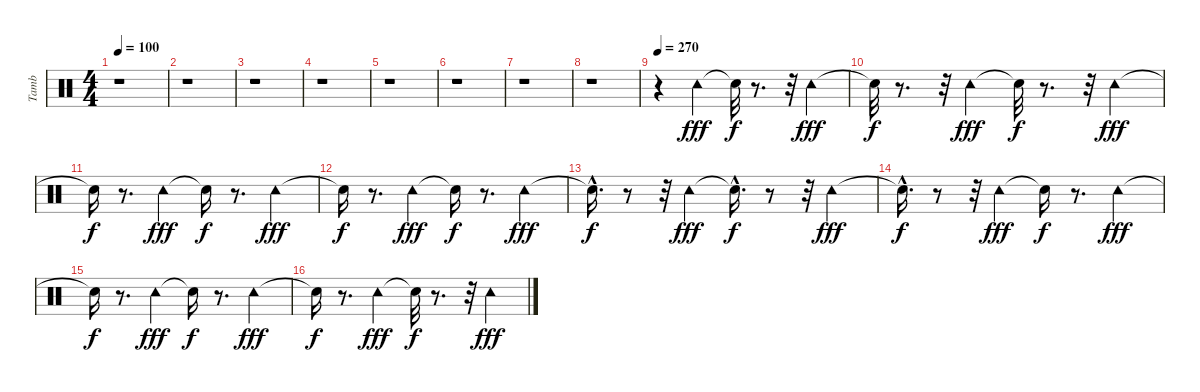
\track ("Tamb" "Tamb") {instrument percussion}
\staff {score}
\articulation defaults
\ts (4 4)
\tempo 100
\clef neutral
\ks c
r.1{dy fff} |
r.1 |
r.1 |
r.1 |
r.1 |
r.1 |
r.1 |
r.1 |
\tempo 270
r.4 "Tambourine (hit)".4 "Snare (hit)"{t}.32{dy f} r.8{d} r.32 "Tambourine (hit)".4{dy fff} |
"Snare (hit)"{t}.32{dy f} r.8{d} r.32 "Tambourine (hit)".4{dy fff} "Snare (hit)"{t}.32{dy f} r.8{d} r.32 "Tambourine (hit)".4{dy fff} |
"Snare (hit)"{t}.16{dy f} r.8{d} "Tambourine (hit)".4{dy fff} "Snare (hit)"{t}.16{dy f} r.8{d} "Tambourine (hit)".4{dy fff} |
"Snare (hit)"{t}.16{dy f} r.8{d} "Tambourine (hit)".4{dy fff} "Snare (hit)"{t}.16{dy f} r.8{d} "Tambourine (hit)".4{dy fff} |
"Snare (hit)"{hac t}.16{d dy f} r.8 r.32 "Tambourine (hit)".4{dy fff} "Snare (hit)"{hac t}.16{d dy f} r.8 r.32 "Tambourine (hit)".4{dy fff} |
"Snare (hit)"{hac t}.16{d dy f} r.8 r.32 "Tambourine (hit)".4{dy fff} "Snare (hit)"{t}.16{dy f} r.8{d} "Tambourine (hit)".4{dy fff} |
"Snare (hit)"{t}.16{dy f} r.8{d} "Tambourine (hit)".4{dy fff} "Snare (hit)"{t}.16{dy f} r.8{d} "Tambourine (hit)".4{dy fff} |
"Snare (hit)"{t}.16{dy f} r.8{d} "Tambourine (hit)".4{dy fff} "Snare (hit)"{t}.32{dy f} r.8{d} r.32 "Tambourine (hit)".4{dy fff}
